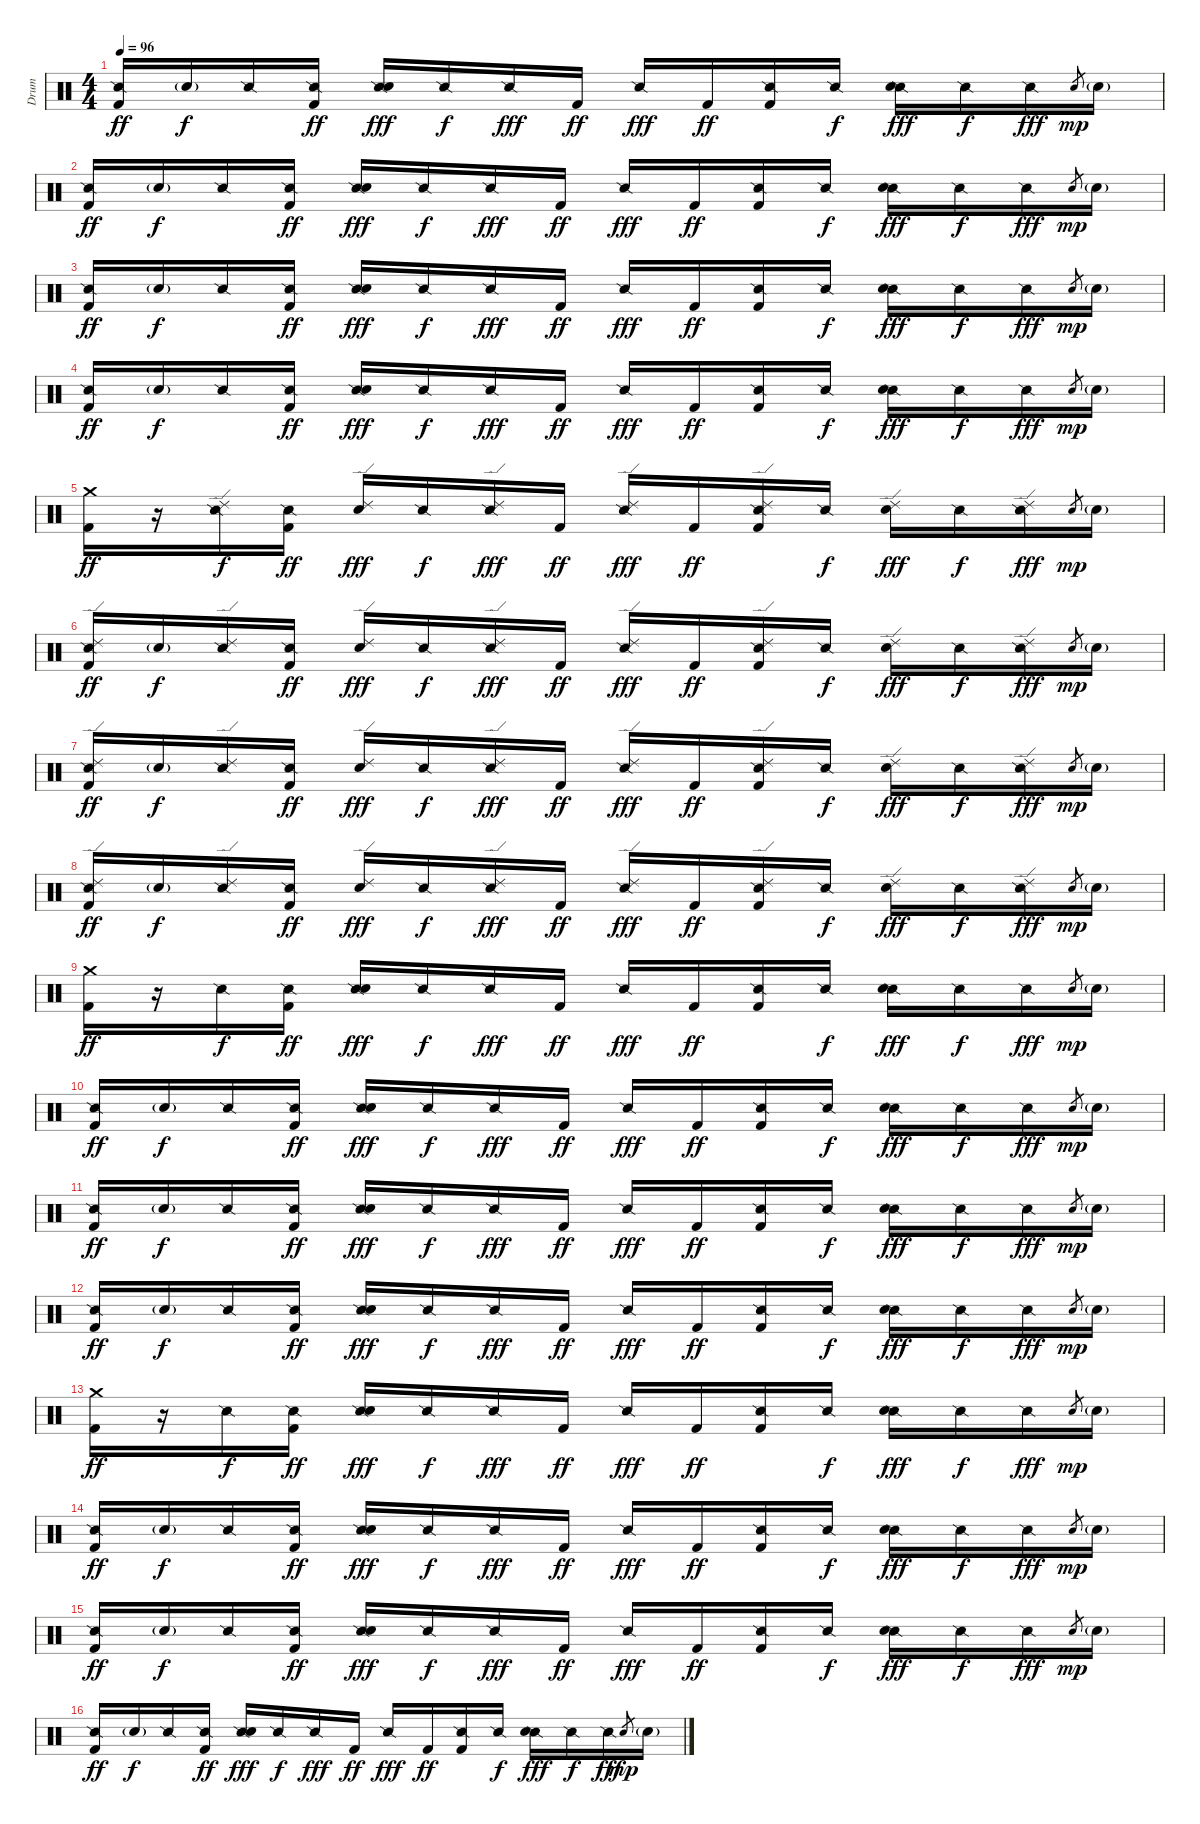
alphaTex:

\track ("Drum" "Drum") {instrument percussion}
\staff {score}
\articulation defaults
\ts (4 4)
\tempo 96
\clef neutral
\ks c
("Snare (side stick) 2" "Kick (hit) 2").16{dy ff} "Snare (hit) 2"{g}.16{dy f} "Snare (side stick) 2".16 ("Snare (side stick) 2" "Kick (hit) 2").16{dy ff} ("Snare (side stick) 2" "Snare (hit) 2").16{dy fff} "Snare (side stick) 2".16{dy f} "Snare (side stick) 2".16{dy fff} "Kick (hit) 2".16{dy ff} "Snare (side stick) 2".16{dy fff} "Kick (hit) 2".16{dy ff} ("Snare (side stick) 2" "Kick (hit) 2").16 "Snare (side stick) 2".16{dy f} ("Snare (side stick) 2" "Snare (hit) 2").16{dy fff} "Snare (side stick) 2".16{dy f} "Snare (side stick) 2".16{dy fff} "Snare (hit) 2".8{gr dy mp} "Snare (hit) 2"{g}.16 |
("Snare (side stick) 2" "Kick (hit) 2").16{dy ff} "Snare (hit) 2"{g}.16{dy f} "Snare (side stick) 2".16 ("Snare (side stick) 2" "Kick (hit) 2").16{dy ff} ("Snare (side stick) 2" "Snare (hit) 2").16{dy fff} "Snare (side stick) 2".16{dy f} "Snare (side stick) 2".16{dy fff} "Kick (hit) 2".16{dy ff} "Snare (side stick) 2".16{dy fff} "Kick (hit) 2".16{dy ff} ("Snare (side stick) 2" "Kick (hit) 2").16 "Snare (side stick) 2".16{dy f} ("Snare (side stick) 2" "Snare (hit) 2").16{dy fff} "Snare (side stick) 2".16{dy f} "Snare (side stick) 2".16{dy fff} "Snare (hit) 2".8{gr dy mp} "Snare (hit) 2"{g}.16 |
("Snare (side stick) 2" "Kick (hit) 2").16{dy ff} "Snare (hit) 2"{g}.16{dy f} "Snare (side stick) 2".16 ("Snare (side stick) 2" "Kick (hit) 2").16{dy ff} ("Snare (side stick) 2" "Snare (hit) 2").16{dy fff} "Snare (side stick) 2".16{dy f} "Snare (side stick) 2".16{dy fff} "Kick (hit) 2".16{dy ff} "Snare (side stick) 2".16{dy fff} "Kick (hit) 2".16{dy ff} ("Snare (side stick) 2" "Kick (hit) 2").16 "Snare (side stick) 2".16{dy f} ("Snare (side stick) 2" "Snare (hit) 2").16{dy fff} "Snare (side stick) 2".16{dy f} "Snare (side stick) 2".16{dy fff} "Snare (hit) 2".8{gr dy mp} "Snare (hit) 2"{g}.16 |
("Snare (side stick) 2" "Kick (hit) 2").16{dy ff} "Snare (hit) 2"{g}.16{dy f} "Snare (side stick) 2".16 ("Snare (side stick) 2" "Kick (hit) 2").16{dy ff} ("Snare (side stick) 2" "Snare (hit) 2").16{dy fff} "Snare (side stick) 2".16{dy f} "Snare (side stick) 2".16{dy fff} "Kick (hit) 2".16{dy ff} "Snare (side stick) 2".16{dy fff} "Kick (hit) 2".16{dy ff} ("Snare (side stick) 2" "Kick (hit) 2").16 "Snare (side stick) 2".16{dy f} ("Snare (side stick) 2" "Snare (hit) 2").16{dy fff} "Snare (side stick) 2".16{dy f} "Snare (side stick) 2".16{dy fff} "Snare (hit) 2".8{gr dy mp} "Snare (hit) 2"{g}.16 |
("Crash medium (hit)" "Kick (hit) 2").16{dy ff} r.16 ("Snare (side stick) 2" "Ride (edge) 2").16{dy f} ("Snare (side stick) 2" "Kick (hit) 2").16{dy ff} ("Ride (edge) 2" "Snare (hit) 2").16{dy fff} "Snare (side stick) 2".16{dy f} ("Snare (side stick) 2" "Ride (edge) 2").16{dy fff} "Kick (hit) 2".16{dy ff} ("Snare (side stick) 2" "Ride (edge) 2").16{dy fff} "Kick (hit) 2".16{dy ff} ("Snare (side stick) 2" "Ride (edge) 2" "Kick (hit) 2").16 "Snare (side stick) 2".16{dy f} ("Ride (edge) 2" "Snare (hit) 2").16{dy fff} "Snare (side stick) 2".16{dy f} ("Snare (side stick) 2" "Ride (edge) 2").16{dy fff} "Snare (hit) 2".8{gr dy mp} "Snare (hit) 2"{g}.16 |
("Snare (side stick) 2" "Ride (edge) 2" "Kick (hit) 2").16{dy ff} "Snare (hit) 2"{g}.16{dy f} ("Snare (side stick) 2" "Ride (edge) 2").16 ("Snare (side stick) 2" "Kick (hit) 2").16{dy ff} ("Ride (edge) 2" "Snare (hit) 2").16{dy fff} "Snare (side stick) 2".16{dy f} ("Snare (side stick) 2" "Ride (edge) 2").16{dy fff} "Kick (hit) 2".16{dy ff} ("Snare (side stick) 2" "Ride (edge) 2").16{dy fff} "Kick (hit) 2".16{dy ff} ("Snare (side stick) 2" "Ride (edge) 2" "Kick (hit) 2").16 "Snare (side stick) 2".16{dy f} ("Ride (edge) 2" "Snare (hit) 2").16{dy fff} "Snare (side stick) 2".16{dy f} ("Snare (side stick) 2" "Ride (edge) 2").16{dy fff} "Snare (hit) 2".8{gr dy mp} "Snare (hit) 2"{g}.16 |
("Snare (side stick) 2" "Ride (edge) 2" "Kick (hit) 2").16{dy ff} "Snare (hit) 2"{g}.16{dy f} ("Snare (side stick) 2" "Ride (edge) 2").16 ("Snare (side stick) 2" "Kick (hit) 2").16{dy ff} ("Ride (edge) 2" "Snare (hit) 2").16{dy fff} "Snare (side stick) 2".16{dy f} ("Snare (side stick) 2" "Ride (edge) 2").16{dy fff} "Kick (hit) 2".16{dy ff} ("Snare (side stick) 2" "Ride (edge) 2").16{dy fff} "Kick (hit) 2".16{dy ff} ("Snare (side stick) 2" "Ride (edge) 2" "Kick (hit) 2").16 "Snare (side stick) 2".16{dy f} ("Ride (edge) 2" "Snare (hit) 2").16{dy fff} "Snare (side stick) 2".16{dy f} ("Snare (side stick) 2" "Ride (edge) 2").16{dy fff} "Snare (hit) 2".8{gr dy mp} "Snare (hit) 2"{g}.16 |
("Snare (side stick) 2" "Ride (edge) 2" "Kick (hit) 2").16{dy ff} "Snare (hit) 2"{g}.16{dy f} ("Snare (side stick) 2" "Ride (edge) 2").16 ("Snare (side stick) 2" "Kick (hit) 2").16{dy ff} ("Ride (edge) 2" "Snare (hit) 2").16{dy fff} "Snare (side stick) 2".16{dy f} ("Snare (side stick) 2" "Ride (edge) 2").16{dy fff} "Kick (hit) 2".16{dy ff} ("Snare (side stick) 2" "Ride (edge) 2").16{dy fff} "Kick (hit) 2".16{dy ff} ("Snare (side stick) 2" "Ride (edge) 2" "Kick (hit) 2").16 "Snare (side stick) 2".16{dy f} ("Ride (edge) 2" "Snare (hit) 2").16{dy fff} "Snare (side stick) 2".16{dy f} ("Snare (side stick) 2" "Ride (edge) 2").16{dy fff} "Snare (hit) 2".8{gr dy mp} "Snare (hit) 2"{g}.16 |
("Crash medium (hit)" "Kick (hit) 2").16{dy ff} r.16 "Snare (side stick) 2".16{dy f} ("Snare (side stick) 2" "Kick (hit) 2").16{dy ff} ("Snare (side stick) 2" "Snare (hit) 2").16{dy fff} "Snare (side stick) 2".16{dy f} "Snare (side stick) 2".16{dy fff} "Kick (hit) 2".16{dy ff} "Snare (side stick) 2".16{dy fff} "Kick (hit) 2".16{dy ff} ("Snare (side stick) 2" "Kick (hit) 2").16 "Snare (side stick) 2".16{dy f} ("Snare (side stick) 2" "Snare (hit) 2").16{dy fff} "Snare (side stick) 2".16{dy f} "Snare (side stick) 2".16{dy fff} "Snare (hit) 2".8{gr dy mp} "Snare (hit) 2"{g}.16 |
("Snare (side stick) 2" "Kick (hit) 2").16{dy ff} "Snare (hit) 2"{g}.16{dy f} "Snare (side stick) 2".16 ("Snare (side stick) 2" "Kick (hit) 2").16{dy ff} ("Snare (side stick) 2" "Snare (hit) 2").16{dy fff} "Snare (side stick) 2".16{dy f} "Snare (side stick) 2".16{dy fff} "Kick (hit) 2".16{dy ff} "Snare (side stick) 2".16{dy fff} "Kick (hit) 2".16{dy ff} ("Snare (side stick) 2" "Kick (hit) 2").16 "Snare (side stick) 2".16{dy f} ("Snare (side stick) 2" "Snare (hit) 2").16{dy fff} "Snare (side stick) 2".16{dy f} "Snare (side stick) 2".16{dy fff} "Snare (hit) 2".8{gr dy mp} "Snare (hit) 2"{g}.16 |
("Snare (side stick) 2" "Kick (hit) 2").16{dy ff} "Snare (hit) 2"{g}.16{dy f} "Snare (side stick) 2".16 ("Snare (side stick) 2" "Kick (hit) 2").16{dy ff} ("Snare (side stick) 2" "Snare (hit) 2").16{dy fff} "Snare (side stick) 2".16{dy f} "Snare (side stick) 2".16{dy fff} "Kick (hit) 2".16{dy ff} "Snare (side stick) 2".16{dy fff} "Kick (hit) 2".16{dy ff} ("Snare (side stick) 2" "Kick (hit) 2").16 "Snare (side stick) 2".16{dy f} ("Snare (side stick) 2" "Snare (hit) 2").16{dy fff} "Snare (side stick) 2".16{dy f} "Snare (side stick) 2".16{dy fff} "Snare (hit) 2".8{gr dy mp} "Snare (hit) 2"{g}.16 |
("Snare (side stick) 2" "Kick (hit) 2").16{dy ff} "Snare (hit) 2"{g}.16{dy f} "Snare (side stick) 2".16 ("Snare (side stick) 2" "Kick (hit) 2").16{dy ff} ("Snare (side stick) 2" "Snare (hit) 2").16{dy fff} "Snare (side stick) 2".16{dy f} "Snare (side stick) 2".16{dy fff} "Kick (hit) 2".16{dy ff} "Snare (side stick) 2".16{dy fff} "Kick (hit) 2".16{dy ff} ("Snare (side stick) 2" "Kick (hit) 2").16 "Snare (side stick) 2".16{dy f} ("Snare (side stick) 2" "Snare (hit) 2").16{dy fff} "Snare (side stick) 2".16{dy f} "Snare (side stick) 2".16{dy fff} "Snare (hit) 2".8{gr dy mp} "Snare (hit) 2"{g}.16 |
("Crash medium (hit)" "Kick (hit) 2").16{dy ff} r.16 "Snare (side stick) 2".16{dy f} ("Snare (side stick) 2" "Kick (hit) 2").16{dy ff} ("Snare (side stick) 2" "Snare (hit) 2").16{dy fff} "Snare (side stick) 2".16{dy f} "Snare (side stick) 2".16{dy fff} "Kick (hit) 2".16{dy ff} "Snare (side stick) 2".16{dy fff} "Kick (hit) 2".16{dy ff} ("Snare (side stick) 2" "Kick (hit) 2").16 "Snare (side stick) 2".16{dy f} ("Snare (side stick) 2" "Snare (hit) 2").16{dy fff} "Snare (side stick) 2".16{dy f} "Snare (side stick) 2".16{dy fff} "Snare (hit) 2".8{gr dy mp} "Snare (hit) 2"{g}.16 |
("Snare (side stick) 2" "Kick (hit) 2").16{dy ff} "Snare (hit) 2"{g}.16{dy f} "Snare (side stick) 2".16 ("Snare (side stick) 2" "Kick (hit) 2").16{dy ff} ("Snare (side stick) 2" "Snare (hit) 2").16{dy fff} "Snare (side stick) 2".16{dy f} "Snare (side stick) 2".16{dy fff} "Kick (hit) 2".16{dy ff} "Snare (side stick) 2".16{dy fff} "Kick (hit) 2".16{dy ff} ("Snare (side stick) 2" "Kick (hit) 2").16 "Snare (side stick) 2".16{dy f} ("Snare (side stick) 2" "Snare (hit) 2").16{dy fff} "Snare (side stick) 2".16{dy f} "Snare (side stick) 2".16{dy fff} "Snare (hit) 2".8{gr dy mp} "Snare (hit) 2"{g}.16 |
("Snare (side stick) 2" "Kick (hit) 2").16{dy ff} "Snare (hit) 2"{g}.16{dy f} "Snare (side stick) 2".16 ("Snare (side stick) 2" "Kick (hit) 2").16{dy ff} ("Snare (side stick) 2" "Snare (hit) 2").16{dy fff} "Snare (side stick) 2".16{dy f} "Snare (side stick) 2".16{dy fff} "Kick (hit) 2".16{dy ff} "Snare (side stick) 2".16{dy fff} "Kick (hit) 2".16{dy ff} ("Snare (side stick) 2" "Kick (hit) 2").16 "Snare (side stick) 2".16{dy f} ("Snare (side stick) 2" "Snare (hit) 2").16{dy fff} "Snare (side stick) 2".16{dy f} "Snare (side stick) 2".16{dy fff} "Snare (hit) 2".8{gr dy mp} "Snare (hit) 2"{g}.16 |
("Snare (side stick) 2" "Kick (hit) 2").16{dy ff} "Snare (hit) 2"{g}.16{dy f} "Snare (side stick) 2".16 ("Snare (side stick) 2" "Kick (hit) 2").16{dy ff} ("Snare (side stick) 2" "Snare (hit) 2").16{dy fff} "Snare (side stick) 2".16{dy f} "Snare (side stick) 2".16{dy fff} "Kick (hit) 2".16{dy ff} "Snare (side stick) 2".16{dy fff} "Kick (hit) 2".16{dy ff} ("Snare (side stick) 2" "Kick (hit) 2").16 "Snare (side stick) 2".16{dy f} ("Snare (side stick) 2" "Snare (hit) 2").16{dy fff} "Snare (side stick) 2".16{dy f} "Snare (side stick) 2".16{dy fff} "Snare (hit) 2".8{gr dy mp} "Snare (hit) 2"{g}.16
